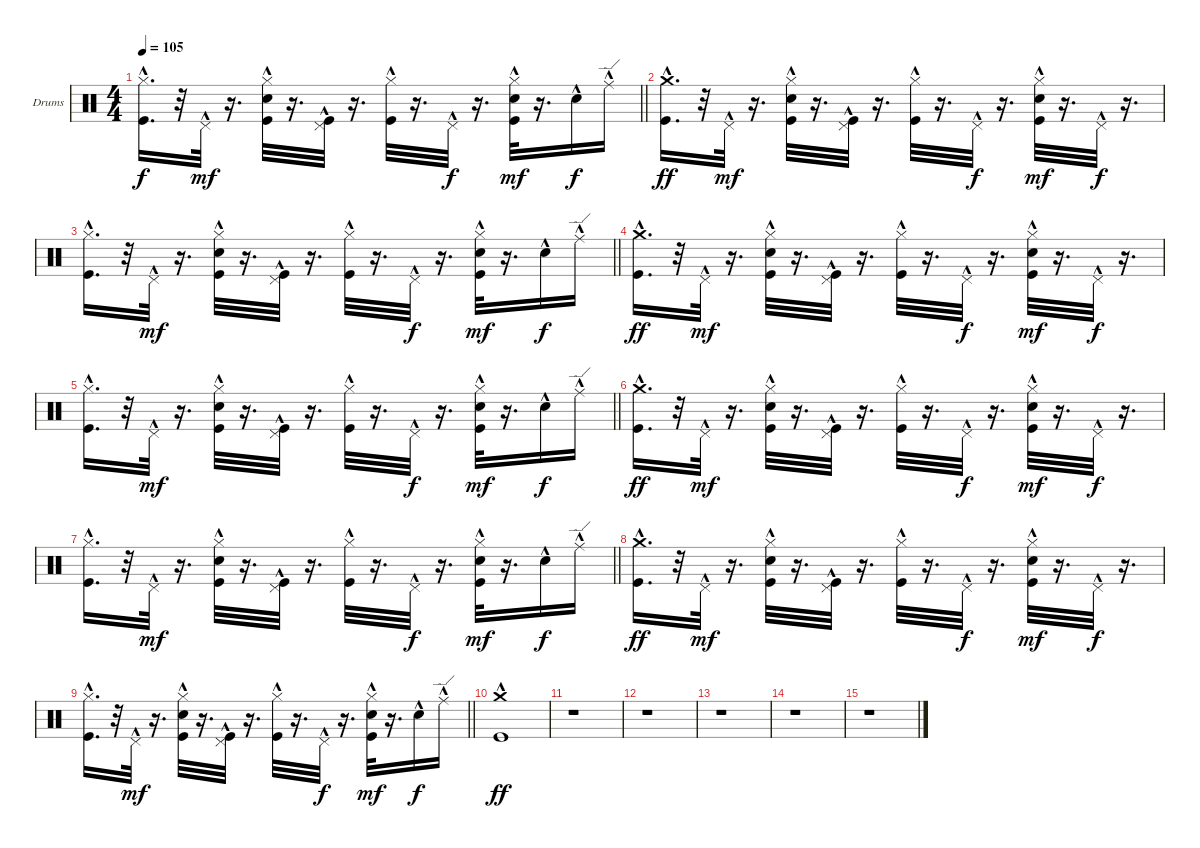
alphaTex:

\bracketExtendMode groupsimilarinstruments
\firstSystemTrackNameOrientation horizontal
\otherSystemsTrackNameOrientation horizontal
\track ("Барабаны Г.Гурьянов" "Drums") {instrument percussion}
\staff {score}
\articulation defaults
\ts (4 4)
\tempo 105
\clef neutral
\barLineRight lightlight
\ks c
("Hi-Hat (closed)"{hac} "Kick (hit)"{hac}).16{d dy f} r.32 "Pedal Hi-Hat (hit)"{hac}.32{dy mf} r.16{d} ("Hi-Hat (closed)"{hac} "Snare (hit) 2"{hac} "Kick (hit)"{hac}).32 r.16{d} ("Pedal Hi-Hat (hit)"{hac} "Kick (hit)"{hac}).32 r.16{d} ("Hi-Hat (closed)"{hac} "Kick (hit)"{hac}).32 r.16{d} "Pedal Hi-Hat (hit)"{hac}.32{dy f} r.16{d} ("Hi-Hat (closed)"{hac} "Snare (hit) 2"{hac} "Kick (hit)"{hac}).32{dy mf} r.16{d} "Snare (hit) 2"{hac}.16{dy f} "Ride (edge)"{hac}.16 |
("Crash medium (hit)"{hac} "Kick (hit)"{hac}).16{d dy ff} r.32 "Pedal Hi-Hat (hit)"{hac}.32{dy mf} r.16{d} ("Hi-Hat (closed)"{hac} "Snare (hit) 2"{hac} "Kick (hit)"{hac}).32 r.16{d} ("Pedal Hi-Hat (hit)"{hac} "Kick (hit)"{hac}).32 r.16{d} ("Hi-Hat (closed)"{hac} "Kick (hit)"{hac}).32 r.16{d} "Pedal Hi-Hat (hit)"{hac}.32{dy f} r.16{d} ("Hi-Hat (closed)"{hac} "Snare (hit) 2"{hac} "Kick (hit)"{hac}).32{dy mf} r.16{d} "Pedal Hi-Hat (hit)"{hac}.32{dy f} r.16{d} |
\barLineRight lightlight
("Hi-Hat (closed)"{hac} "Kick (hit)"{hac}).16{d} r.32 "Pedal Hi-Hat (hit)"{hac}.32{dy mf} r.16{d} ("Hi-Hat (closed)"{hac} "Snare (hit) 2"{hac} "Kick (hit)"{hac}).32 r.16{d} ("Pedal Hi-Hat (hit)"{hac} "Kick (hit)"{hac}).32 r.16{d} ("Hi-Hat (closed)"{hac} "Kick (hit)"{hac}).32 r.16{d} "Pedal Hi-Hat (hit)"{hac}.32{dy f} r.16{d} ("Hi-Hat (closed)"{hac} "Snare (hit) 2"{hac} "Kick (hit)"{hac}).32{dy mf} r.16{d} "Snare (hit) 2"{hac}.16{dy f} "Ride (edge)"{hac}.16 |
("Crash medium (hit)"{hac} "Kick (hit)"{hac}).16{d dy ff} r.32 "Pedal Hi-Hat (hit)"{hac}.32{dy mf} r.16{d} ("Hi-Hat (closed)"{hac} "Snare (hit) 2"{hac} "Kick (hit)"{hac}).32 r.16{d} ("Pedal Hi-Hat (hit)"{hac} "Kick (hit)"{hac}).32 r.16{d} ("Hi-Hat (closed)"{hac} "Kick (hit)"{hac}).32 r.16{d} "Pedal Hi-Hat (hit)"{hac}.32{dy f} r.16{d} ("Hi-Hat (closed)"{hac} "Snare (hit) 2"{hac} "Kick (hit)"{hac}).32{dy mf} r.16{d} "Pedal Hi-Hat (hit)"{hac}.32{dy f} r.16{d} |
\barLineRight lightlight
("Hi-Hat (closed)"{hac} "Kick (hit)"{hac}).16{d} r.32 "Pedal Hi-Hat (hit)"{hac}.32{dy mf} r.16{d} ("Hi-Hat (closed)"{hac} "Snare (hit) 2"{hac} "Kick (hit)"{hac}).32 r.16{d} ("Pedal Hi-Hat (hit)"{hac} "Kick (hit)"{hac}).32 r.16{d} ("Hi-Hat (closed)"{hac} "Kick (hit)"{hac}).32 r.16{d} "Pedal Hi-Hat (hit)"{hac}.32{dy f} r.16{d} ("Hi-Hat (closed)"{hac} "Snare (hit) 2"{hac} "Kick (hit)"{hac}).32{dy mf} r.16{d} "Snare (hit) 2"{hac}.16{dy f} "Ride (edge)"{hac}.16 |
("Crash medium (hit)"{hac} "Kick (hit)"{hac}).16{d dy ff} r.32 "Pedal Hi-Hat (hit)"{hac}.32{dy mf} r.16{d} ("Hi-Hat (closed)"{hac} "Snare (hit) 2"{hac} "Kick (hit)"{hac}).32 r.16{d} ("Pedal Hi-Hat (hit)"{hac} "Kick (hit)"{hac}).32 r.16{d} ("Hi-Hat (closed)"{hac} "Kick (hit)"{hac}).32 r.16{d} "Pedal Hi-Hat (hit)"{hac}.32{dy f} r.16{d} ("Hi-Hat (closed)"{hac} "Snare (hit) 2"{hac} "Kick (hit)"{hac}).32{dy mf} r.16{d} "Pedal Hi-Hat (hit)"{hac}.32{dy f} r.16{d} |
\barLineRight lightlight
("Hi-Hat (closed)"{hac} "Kick (hit)"{hac}).16{d} r.32 "Pedal Hi-Hat (hit)"{hac}.32{dy mf} r.16{d} ("Hi-Hat (closed)"{hac} "Snare (hit) 2"{hac} "Kick (hit)"{hac}).32 r.16{d} ("Pedal Hi-Hat (hit)"{hac} "Kick (hit)"{hac}).32 r.16{d} ("Hi-Hat (closed)"{hac} "Kick (hit)"{hac}).32 r.16{d} "Pedal Hi-Hat (hit)"{hac}.32{dy f} r.16{d} ("Hi-Hat (closed)"{hac} "Snare (hit) 2"{hac} "Kick (hit)"{hac}).32{dy mf} r.16{d} "Snare (hit) 2"{hac}.16{dy f} "Ride (edge)"{hac}.16 |
("Crash medium (hit)"{hac} "Kick (hit)"{hac}).16{d dy ff} r.32 "Pedal Hi-Hat (hit)"{hac}.32{dy mf} r.16{d} ("Hi-Hat (closed)"{hac} "Snare (hit) 2"{hac} "Kick (hit)"{hac}).32 r.16{d} ("Pedal Hi-Hat (hit)"{hac} "Kick (hit)"{hac}).32 r.16{d} ("Hi-Hat (closed)"{hac} "Kick (hit)"{hac}).32 r.16{d} "Pedal Hi-Hat (hit)"{hac}.32{dy f} r.16{d} ("Hi-Hat (closed)"{hac} "Snare (hit) 2"{hac} "Kick (hit)"{hac}).32{dy mf} r.16{d} "Pedal Hi-Hat (hit)"{hac}.32{dy f} r.16{d} |
\barLineRight lightlight
("Hi-Hat (closed)"{hac} "Kick (hit)"{hac}).16{d} r.32 "Pedal Hi-Hat (hit)"{hac}.32{dy mf} r.16{d} ("Hi-Hat (closed)"{hac} "Snare (hit) 2"{hac} "Kick (hit)"{hac}).32 r.16{d} ("Pedal Hi-Hat (hit)"{hac} "Kick (hit)"{hac}).32 r.16{d} ("Hi-Hat (closed)"{hac} "Kick (hit)"{hac}).32 r.16{d} "Pedal Hi-Hat (hit)"{hac}.32{dy f} r.16{d} ("Hi-Hat (closed)"{hac} "Snare (hit) 2"{hac} "Kick (hit)"{hac}).32{dy mf} r.16{d} "Snare (hit) 2"{hac}.16{dy f} "Ride (edge)"{hac}.16 |
("Crash medium (hit)"{hac} "Kick (hit)"{hac}).1{dy ff} |
r.1 |
r.1 |
r.1 |
r.1 |
r.1
